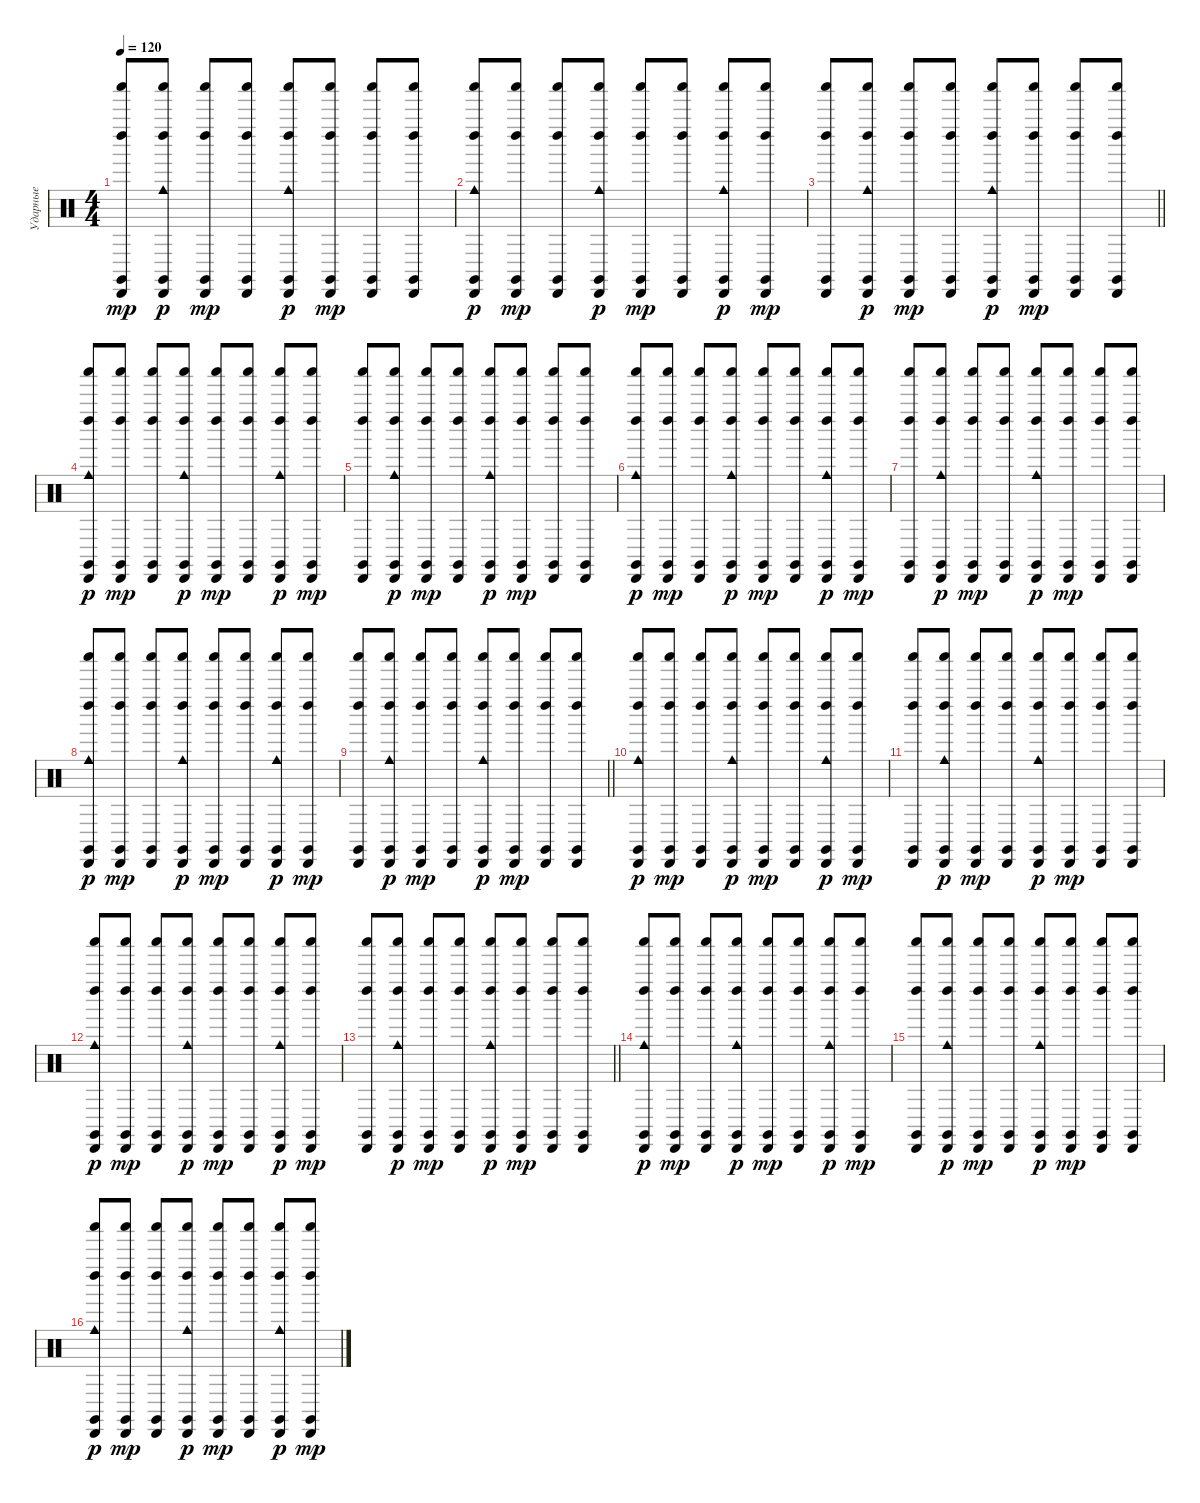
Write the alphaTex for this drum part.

\track ("Ударные" "Ударные") {instrument percussion}
\staff {score}
\articulation defaults
\ts (4 4)
\tempo 120
\clef neutral
\ks c
("Claves (hit)" "Shaker (hit)" "Cabasa (hit)" "Left Maraca (hit)").8{dy mp} ("Claves (hit)" "Shaker (hit)" "Cabasa (hit)" "Left Maraca (hit)" "Cowbell medium (hit)").8{dy p} ("Claves (hit)" "Shaker (hit)" "Cabasa (hit)" "Left Maraca (hit)").8{dy mp} ("Claves (hit)" "Shaker (hit)" "Cabasa (hit)" "Left Maraca (hit)").8 ("Claves (hit)" "Shaker (hit)" "Cabasa (hit)" "Left Maraca (hit)" "Cowbell medium (hit)").8{dy p} ("Claves (hit)" "Shaker (hit)" "Cabasa (hit)" "Left Maraca (hit)").8{dy mp} ("Claves (hit)" "Shaker (hit)" "Cabasa (hit)" "Left Maraca (hit)").8 ("Claves (hit)" "Shaker (hit)" "Cabasa (hit)" "Left Maraca (hit)").8 |
("Claves (hit)" "Shaker (hit)" "Cabasa (hit)" "Left Maraca (hit)" "Cowbell medium (hit)").8{dy p} ("Claves (hit)" "Shaker (hit)" "Cabasa (hit)" "Left Maraca (hit)").8{dy mp} ("Claves (hit)" "Shaker (hit)" "Cabasa (hit)" "Left Maraca (hit)").8 ("Claves (hit)" "Shaker (hit)" "Cabasa (hit)" "Left Maraca (hit)" "Cowbell medium (hit)").8{dy p} ("Claves (hit)" "Shaker (hit)" "Cabasa (hit)" "Left Maraca (hit)").8{dy mp} ("Claves (hit)" "Shaker (hit)" "Cabasa (hit)" "Left Maraca (hit)").8 ("Claves (hit)" "Shaker (hit)" "Cabasa (hit)" "Left Maraca (hit)" "Cowbell medium (hit)").8{dy p} ("Claves (hit)" "Shaker (hit)" "Cabasa (hit)" "Left Maraca (hit)").8{dy mp} |
\barLineRight lightlight
("Claves (hit)" "Shaker (hit)" "Cabasa (hit)" "Left Maraca (hit)").8 ("Claves (hit)" "Shaker (hit)" "Cabasa (hit)" "Left Maraca (hit)" "Cowbell medium (hit)").8{dy p} ("Claves (hit)" "Shaker (hit)" "Cabasa (hit)" "Left Maraca (hit)").8{dy mp} ("Claves (hit)" "Shaker (hit)" "Cabasa (hit)" "Left Maraca (hit)").8 ("Claves (hit)" "Shaker (hit)" "Cabasa (hit)" "Left Maraca (hit)" "Cowbell medium (hit)").8{dy p} ("Claves (hit)" "Shaker (hit)" "Cabasa (hit)" "Left Maraca (hit)").8{dy mp} ("Claves (hit)" "Shaker (hit)" "Cabasa (hit)" "Left Maraca (hit)").8 ("Claves (hit)" "Shaker (hit)" "Cabasa (hit)" "Left Maraca (hit)").8 |
("Claves (hit)" "Shaker (hit)" "Cabasa (hit)" "Left Maraca (hit)" "Cowbell medium (hit)").8{dy p} ("Claves (hit)" "Shaker (hit)" "Cabasa (hit)" "Left Maraca (hit)").8{dy mp} ("Claves (hit)" "Shaker (hit)" "Cabasa (hit)" "Left Maraca (hit)").8 ("Claves (hit)" "Shaker (hit)" "Cabasa (hit)" "Left Maraca (hit)" "Cowbell medium (hit)").8{dy p} ("Claves (hit)" "Shaker (hit)" "Cabasa (hit)" "Left Maraca (hit)").8{dy mp} ("Claves (hit)" "Shaker (hit)" "Cabasa (hit)" "Left Maraca (hit)").8 ("Claves (hit)" "Shaker (hit)" "Cabasa (hit)" "Left Maraca (hit)" "Cowbell medium (hit)").8{dy p} ("Claves (hit)" "Shaker (hit)" "Cabasa (hit)" "Left Maraca (hit)").8{dy mp} |
("Claves (hit)" "Shaker (hit)" "Cabasa (hit)" "Left Maraca (hit)").8 ("Claves (hit)" "Shaker (hit)" "Cabasa (hit)" "Left Maraca (hit)" "Cowbell medium (hit)").8{dy p} ("Claves (hit)" "Shaker (hit)" "Cabasa (hit)" "Left Maraca (hit)").8{dy mp} ("Claves (hit)" "Shaker (hit)" "Cabasa (hit)" "Left Maraca (hit)").8 ("Claves (hit)" "Shaker (hit)" "Cabasa (hit)" "Left Maraca (hit)" "Cowbell medium (hit)").8{dy p} ("Claves (hit)" "Shaker (hit)" "Cabasa (hit)" "Left Maraca (hit)").8{dy mp} ("Claves (hit)" "Shaker (hit)" "Cabasa (hit)" "Left Maraca (hit)").8 ("Claves (hit)" "Shaker (hit)" "Cabasa (hit)" "Left Maraca (hit)").8 |
("Claves (hit)" "Shaker (hit)" "Cabasa (hit)" "Left Maraca (hit)" "Cowbell medium (hit)").8{dy p} ("Claves (hit)" "Shaker (hit)" "Cabasa (hit)" "Left Maraca (hit)").8{dy mp} ("Claves (hit)" "Shaker (hit)" "Cabasa (hit)" "Left Maraca (hit)").8 ("Claves (hit)" "Shaker (hit)" "Cabasa (hit)" "Left Maraca (hit)" "Cowbell medium (hit)").8{dy p} ("Claves (hit)" "Shaker (hit)" "Cabasa (hit)" "Left Maraca (hit)").8{dy mp} ("Claves (hit)" "Shaker (hit)" "Cabasa (hit)" "Left Maraca (hit)").8 ("Claves (hit)" "Shaker (hit)" "Cabasa (hit)" "Left Maraca (hit)" "Cowbell medium (hit)").8{dy p} ("Claves (hit)" "Shaker (hit)" "Cabasa (hit)" "Left Maraca (hit)").8{dy mp} |
("Claves (hit)" "Shaker (hit)" "Cabasa (hit)" "Left Maraca (hit)").8 ("Claves (hit)" "Shaker (hit)" "Cabasa (hit)" "Left Maraca (hit)" "Cowbell medium (hit)").8{dy p} ("Claves (hit)" "Shaker (hit)" "Cabasa (hit)" "Left Maraca (hit)").8{dy mp} ("Claves (hit)" "Shaker (hit)" "Cabasa (hit)" "Left Maraca (hit)").8 ("Claves (hit)" "Shaker (hit)" "Cabasa (hit)" "Left Maraca (hit)" "Cowbell medium (hit)").8{dy p} ("Claves (hit)" "Shaker (hit)" "Cabasa (hit)" "Left Maraca (hit)").8{dy mp} ("Claves (hit)" "Shaker (hit)" "Cabasa (hit)" "Left Maraca (hit)").8 ("Claves (hit)" "Shaker (hit)" "Cabasa (hit)" "Left Maraca (hit)").8 |
("Claves (hit)" "Shaker (hit)" "Cabasa (hit)" "Left Maraca (hit)" "Cowbell medium (hit)").8{dy p} ("Claves (hit)" "Shaker (hit)" "Cabasa (hit)" "Left Maraca (hit)").8{dy mp} ("Claves (hit)" "Shaker (hit)" "Cabasa (hit)" "Left Maraca (hit)").8 ("Claves (hit)" "Shaker (hit)" "Cabasa (hit)" "Left Maraca (hit)" "Cowbell medium (hit)").8{dy p} ("Claves (hit)" "Shaker (hit)" "Cabasa (hit)" "Left Maraca (hit)").8{dy mp} ("Claves (hit)" "Shaker (hit)" "Cabasa (hit)" "Left Maraca (hit)").8 ("Claves (hit)" "Shaker (hit)" "Cabasa (hit)" "Left Maraca (hit)" "Cowbell medium (hit)").8{dy p} ("Claves (hit)" "Shaker (hit)" "Cabasa (hit)" "Left Maraca (hit)").8{dy mp} |
\barLineRight lightlight
("Claves (hit)" "Shaker (hit)" "Cabasa (hit)" "Left Maraca (hit)").8 ("Claves (hit)" "Shaker (hit)" "Cabasa (hit)" "Left Maraca (hit)" "Cowbell medium (hit)").8{dy p} ("Claves (hit)" "Shaker (hit)" "Cabasa (hit)" "Left Maraca (hit)").8{dy mp} ("Claves (hit)" "Shaker (hit)" "Cabasa (hit)" "Left Maraca (hit)").8 ("Claves (hit)" "Shaker (hit)" "Cabasa (hit)" "Left Maraca (hit)" "Cowbell medium (hit)").8{dy p} ("Claves (hit)" "Shaker (hit)" "Cabasa (hit)" "Left Maraca (hit)").8{dy mp} ("Claves (hit)" "Shaker (hit)" "Cabasa (hit)" "Left Maraca (hit)").8 ("Claves (hit)" "Shaker (hit)" "Cabasa (hit)" "Left Maraca (hit)").8 |
("Claves (hit)" "Shaker (hit)" "Cabasa (hit)" "Left Maraca (hit)" "Cowbell medium (hit)").8{dy p} ("Claves (hit)" "Shaker (hit)" "Cabasa (hit)" "Left Maraca (hit)").8{dy mp} ("Claves (hit)" "Shaker (hit)" "Cabasa (hit)" "Left Maraca (hit)").8 ("Claves (hit)" "Shaker (hit)" "Cabasa (hit)" "Left Maraca (hit)" "Cowbell medium (hit)").8{dy p} ("Claves (hit)" "Shaker (hit)" "Cabasa (hit)" "Left Maraca (hit)").8{dy mp} ("Claves (hit)" "Shaker (hit)" "Cabasa (hit)" "Left Maraca (hit)").8 ("Claves (hit)" "Shaker (hit)" "Cabasa (hit)" "Left Maraca (hit)" "Cowbell medium (hit)").8{dy p} ("Claves (hit)" "Shaker (hit)" "Cabasa (hit)" "Left Maraca (hit)").8{dy mp} |
("Claves (hit)" "Shaker (hit)" "Cabasa (hit)" "Left Maraca (hit)").8 ("Claves (hit)" "Shaker (hit)" "Cabasa (hit)" "Left Maraca (hit)" "Cowbell medium (hit)").8{dy p} ("Claves (hit)" "Shaker (hit)" "Cabasa (hit)" "Left Maraca (hit)").8{dy mp} ("Claves (hit)" "Shaker (hit)" "Cabasa (hit)" "Left Maraca (hit)").8 ("Claves (hit)" "Shaker (hit)" "Cabasa (hit)" "Left Maraca (hit)" "Cowbell medium (hit)").8{dy p} ("Claves (hit)" "Shaker (hit)" "Cabasa (hit)" "Left Maraca (hit)").8{dy mp} ("Claves (hit)" "Shaker (hit)" "Cabasa (hit)" "Left Maraca (hit)").8 ("Claves (hit)" "Shaker (hit)" "Cabasa (hit)" "Left Maraca (hit)").8 |
("Claves (hit)" "Shaker (hit)" "Cabasa (hit)" "Left Maraca (hit)" "Cowbell medium (hit)").8{dy p} ("Claves (hit)" "Shaker (hit)" "Cabasa (hit)" "Left Maraca (hit)").8{dy mp} ("Claves (hit)" "Shaker (hit)" "Cabasa (hit)" "Left Maraca (hit)").8 ("Claves (hit)" "Shaker (hit)" "Cabasa (hit)" "Left Maraca (hit)" "Cowbell medium (hit)").8{dy p} ("Claves (hit)" "Shaker (hit)" "Cabasa (hit)" "Left Maraca (hit)").8{dy mp} ("Claves (hit)" "Shaker (hit)" "Cabasa (hit)" "Left Maraca (hit)").8 ("Claves (hit)" "Shaker (hit)" "Cabasa (hit)" "Left Maraca (hit)" "Cowbell medium (hit)").8{dy p} ("Claves (hit)" "Shaker (hit)" "Cabasa (hit)" "Left Maraca (hit)").8{dy mp} |
\barLineRight lightlight
("Claves (hit)" "Shaker (hit)" "Cabasa (hit)" "Left Maraca (hit)").8 ("Claves (hit)" "Shaker (hit)" "Cabasa (hit)" "Left Maraca (hit)" "Cowbell medium (hit)").8{dy p} ("Claves (hit)" "Shaker (hit)" "Cabasa (hit)" "Left Maraca (hit)").8{dy mp} ("Claves (hit)" "Shaker (hit)" "Cabasa (hit)" "Left Maraca (hit)").8 ("Claves (hit)" "Shaker (hit)" "Cabasa (hit)" "Left Maraca (hit)" "Cowbell medium (hit)").8{dy p} ("Claves (hit)" "Shaker (hit)" "Cabasa (hit)" "Left Maraca (hit)").8{dy mp} ("Claves (hit)" "Shaker (hit)" "Cabasa (hit)" "Left Maraca (hit)").8 ("Claves (hit)" "Shaker (hit)" "Cabasa (hit)" "Left Maraca (hit)").8 |
("Claves (hit)" "Shaker (hit)" "Cabasa (hit)" "Left Maraca (hit)" "Cowbell medium (hit)").8{dy p} ("Claves (hit)" "Shaker (hit)" "Cabasa (hit)" "Left Maraca (hit)").8{dy mp} ("Claves (hit)" "Shaker (hit)" "Cabasa (hit)" "Left Maraca (hit)").8 ("Claves (hit)" "Shaker (hit)" "Cabasa (hit)" "Left Maraca (hit)" "Cowbell medium (hit)").8{dy p} ("Claves (hit)" "Shaker (hit)" "Cabasa (hit)" "Left Maraca (hit)").8{dy mp} ("Claves (hit)" "Shaker (hit)" "Cabasa (hit)" "Left Maraca (hit)").8 ("Claves (hit)" "Shaker (hit)" "Cabasa (hit)" "Left Maraca (hit)" "Cowbell medium (hit)").8{dy p} ("Claves (hit)" "Shaker (hit)" "Cabasa (hit)" "Left Maraca (hit)").8{dy mp} |
("Claves (hit)" "Shaker (hit)" "Cabasa (hit)" "Left Maraca (hit)").8 ("Claves (hit)" "Shaker (hit)" "Cabasa (hit)" "Left Maraca (hit)" "Cowbell medium (hit)").8{dy p} ("Claves (hit)" "Shaker (hit)" "Cabasa (hit)" "Left Maraca (hit)").8{dy mp} ("Claves (hit)" "Shaker (hit)" "Cabasa (hit)" "Left Maraca (hit)").8 ("Claves (hit)" "Shaker (hit)" "Cabasa (hit)" "Left Maraca (hit)" "Cowbell medium (hit)").8{dy p} ("Claves (hit)" "Shaker (hit)" "Cabasa (hit)" "Left Maraca (hit)").8{dy mp} ("Claves (hit)" "Shaker (hit)" "Cabasa (hit)" "Left Maraca (hit)").8 ("Claves (hit)" "Shaker (hit)" "Cabasa (hit)" "Left Maraca (hit)").8 |
("Claves (hit)" "Shaker (hit)" "Cabasa (hit)" "Left Maraca (hit)" "Cowbell medium (hit)").8{dy p} ("Claves (hit)" "Shaker (hit)" "Cabasa (hit)" "Left Maraca (hit)").8{dy mp} ("Claves (hit)" "Shaker (hit)" "Cabasa (hit)" "Left Maraca (hit)").8 ("Claves (hit)" "Shaker (hit)" "Cabasa (hit)" "Left Maraca (hit)" "Cowbell medium (hit)").8{dy p} ("Claves (hit)" "Shaker (hit)" "Cabasa (hit)" "Left Maraca (hit)").8{dy mp} ("Claves (hit)" "Shaker (hit)" "Cabasa (hit)" "Left Maraca (hit)").8 ("Claves (hit)" "Shaker (hit)" "Cabasa (hit)" "Left Maraca (hit)" "Cowbell medium (hit)").8{dy p} ("Claves (hit)" "Shaker (hit)" "Cabasa (hit)" "Left Maraca (hit)").8{dy mp}
